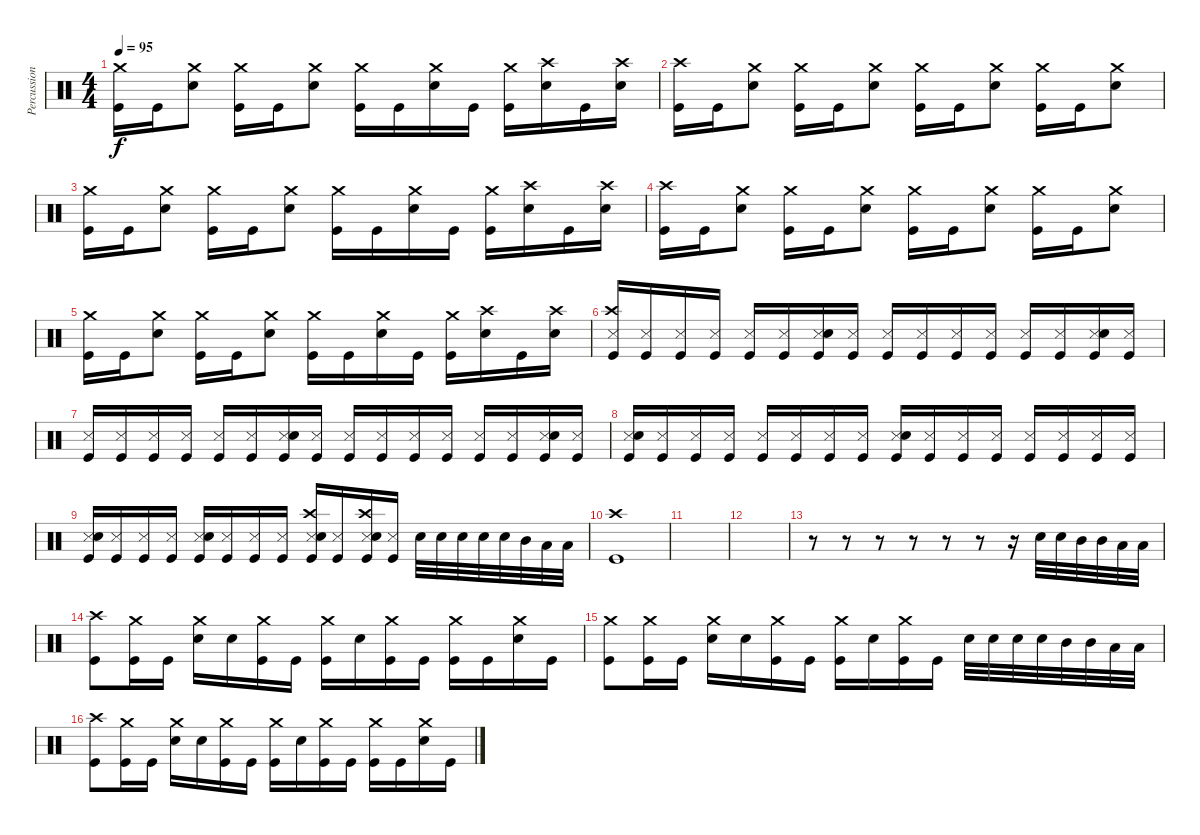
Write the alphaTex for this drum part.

\track ("Percussion" "Percussion") {instrument percussion}
\staff {score}
\articulation defaults
\ts (4 4)
\tempo 95
\clef neutral
\ks c
("Crash medium (hit)" "Kick (hit)").16{dy f} "Kick (hit)".16 ("Crash medium (hit)" "Electric Snare (hit)").8 ("Crash medium (hit)" "Kick (hit)").16 "Kick (hit)".16 ("Crash medium (hit)" "Electric Snare (hit)").8 ("Crash medium (hit)" "Kick (hit)").16 "Kick (hit)".16 ("Crash medium (hit)" "Electric Snare (hit)").16 "Kick (hit)".16 ("Crash medium (hit)" "Kick (hit)").16 ("Crash high (hit)" "Electric Snare (hit)").16 "Kick (hit)".16 ("Crash high (hit)" "Electric Snare (hit)").16 |
("Crash high (hit)" "Kick (hit)").16 "Kick (hit)".16 ("Crash medium (hit)" "Electric Snare (hit)").8 ("Crash medium (hit)" "Kick (hit)").16 "Kick (hit)".16 ("Crash medium (hit)" "Electric Snare (hit)").8 ("Crash medium (hit)" "Kick (hit)").16 "Kick (hit)".16 ("Crash medium (hit)" "Electric Snare (hit)").8 ("Crash medium (hit)" "Kick (hit)").16 "Kick (hit)".16 ("Crash medium (hit)" "Electric Snare (hit)").8 |
("Crash medium (hit)" "Kick (hit)").16 "Kick (hit)".16 ("Crash medium (hit)" "Electric Snare (hit)").8 ("Crash medium (hit)" "Kick (hit)").16 "Kick (hit)".16 ("Crash medium (hit)" "Electric Snare (hit)").8 ("Crash medium (hit)" "Kick (hit)").16 "Kick (hit)".16 ("Crash medium (hit)" "Electric Snare (hit)").16 "Kick (hit)".16 ("Crash medium (hit)" "Kick (hit)").16 ("Crash high (hit)" "Electric Snare (hit)").16 "Kick (hit)".16 ("Crash high (hit)" "Electric Snare (hit)").16 |
("Crash high (hit)" "Kick (hit)").16 "Kick (hit)".16 ("Crash medium (hit)" "Electric Snare (hit)").8 ("Crash medium (hit)" "Kick (hit)").16 "Kick (hit)".16 ("Crash medium (hit)" "Electric Snare (hit)").8 ("Crash medium (hit)" "Kick (hit)").16 "Kick (hit)".16 ("Crash medium (hit)" "Electric Snare (hit)").8 ("Crash medium (hit)" "Kick (hit)").16 "Kick (hit)".16 ("Crash medium (hit)" "Electric Snare (hit)").8 |
("Crash medium (hit)" "Kick (hit)").16 "Kick (hit)".16 ("Crash medium (hit)" "Electric Snare (hit)").8 ("Crash medium (hit)" "Kick (hit)").16 "Kick (hit)".16 ("Crash medium (hit)" "Electric Snare (hit)").8 ("Crash medium (hit)" "Kick (hit)").16 "Kick (hit)".16 ("Crash medium (hit)" "Electric Snare (hit)").16 "Kick (hit)".16 ("Crash medium (hit)" "Kick (hit)").16 ("Crash high (hit)" "Electric Snare (hit)").16 "Kick (hit)".16 ("Crash high (hit)" "Electric Snare (hit)").16 |
("Crash high (hit)" "Snare (side stick) 3" "Kick (hit)").16 ("Snare (side stick) 3" "Kick (hit)").16 ("Snare (side stick) 3" "Kick (hit)").16 ("Snare (side stick) 3" "Kick (hit)").16 ("Snare (side stick) 3" "Kick (hit)").16 ("Snare (side stick) 3" "Kick (hit)").16 ("Snare (side stick) 3" "Electric Snare (hit)" "Kick (hit)").16 ("Snare (side stick) 3" "Kick (hit)").16 ("Snare (side stick) 3" "Kick (hit)").16 ("Snare (side stick) 3" "Kick (hit)").16 ("Snare (side stick) 3" "Kick (hit)").16 ("Snare (side stick) 3" "Kick (hit)").16 ("Snare (side stick) 3" "Kick (hit)").16 ("Snare (side stick) 3" "Kick (hit)").16 ("Snare (side stick) 3" "Electric Snare (hit)" "Kick (hit)").16 ("Snare (side stick) 3" "Kick (hit)").16 |
("Snare (side stick) 3" "Kick (hit)").16 ("Snare (side stick) 3" "Kick (hit)").16 ("Snare (side stick) 3" "Kick (hit)").16 ("Snare (side stick) 3" "Kick (hit)").16 ("Snare (side stick) 3" "Kick (hit)").16 ("Snare (side stick) 3" "Kick (hit)").16 ("Snare (side stick) 3" "Electric Snare (hit)" "Kick (hit)").16 ("Snare (side stick) 3" "Kick (hit)").16 ("Snare (side stick) 3" "Kick (hit)").16 ("Snare (side stick) 3" "Kick (hit)").16 ("Snare (side stick) 3" "Kick (hit)").16 ("Snare (side stick) 3" "Kick (hit)").16 ("Snare (side stick) 3" "Kick (hit)").16 ("Snare (side stick) 3" "Kick (hit)").16 ("Snare (side stick) 3" "Electric Snare (hit)" "Kick (hit)").16 ("Snare (side stick) 3" "Kick (hit)").16 |
("Snare (side stick) 3" "Electric Snare (hit)" "Kick (hit)").16 ("Snare (side stick) 3" "Kick (hit)").16 ("Snare (side stick) 3" "Kick (hit)").16 ("Snare (side stick) 3" "Kick (hit)").16 ("Snare (side stick) 3" "Kick (hit)").16 ("Snare (side stick) 3" "Kick (hit)").16 ("Snare (side stick) 3" "Kick (hit)").16 ("Snare (side stick) 3" "Kick (hit)").16 ("Snare (side stick) 3" "Electric Snare (hit)" "Kick (hit)").16 ("Snare (side stick) 3" "Kick (hit)").16 ("Snare (side stick) 3" "Kick (hit)").16 ("Snare (side stick) 3" "Kick (hit)").16 ("Snare (side stick) 3" "Kick (hit)").16 ("Snare (side stick) 3" "Kick (hit)").16 ("Snare (side stick) 3" "Kick (hit)").16 ("Snare (side stick) 3" "Kick (hit)").16 |
("Snare (side stick) 3" "Electric Snare (hit)" "Kick (hit)").16 ("Snare (side stick) 3" "Kick (hit)").16 ("Snare (side stick) 3" "Kick (hit)").16 ("Snare (side stick) 3" "Kick (hit)").16 ("Snare (side stick) 3" "Electric Snare (hit)" "Kick (hit)").16 ("Snare (side stick) 3" "Kick (hit)").16 ("Snare (side stick) 3" "Kick (hit)").16 ("Snare (side stick) 3" "Kick (hit)").16 ("Crash high (hit)" "Snare (side stick) 3" "Electric Snare (hit)" "Kick (hit)").16 ("Snare (side stick) 3" "Kick (hit)").16 ("Crash high (hit)" "Snare (side stick) 3" "Electric Snare (hit)" "Kick (hit)").16 ("Snare (side stick) 3" "Kick (hit)").16 "Electric Snare (hit)".32 "Electric Snare (hit)".32 "Electric Snare (hit)".32 "Electric Snare (hit)".32 "Electric Snare (hit)".32 "Mid Tom (hit)".32 "Low Tom (hit)".32 "Low Tom (hit)".32 |
("Crash high (hit)" "Kick (hit)").1 |
|
|
r.8 r.8 r.8 r.8 r.8 r.8 r.16 "Electric Snare (hit)".32 "Electric Snare (hit)".32 "Mid Tom (hit)".32 "Mid Tom (hit)".32 "Low Tom (hit)".32 "Low Tom (hit)".32 |
("Crash high (hit)" "Kick (hit)").8 ("Crash medium (hit)" "Kick (hit)").16 "Kick (hit)".16 ("Crash medium (hit)" "Electric Snare (hit)").16 "Electric Snare (hit)".16 ("Crash medium (hit)" "Kick (hit)").16 "Kick (hit)".16 ("Crash medium (hit)" "Kick (hit)").16 "Electric Snare (hit)".16 ("Crash medium (hit)" "Kick (hit)").16 "Kick (hit)".16 ("Crash medium (hit)" "Kick (hit)").16 "Kick (hit)".16 ("Crash medium (hit)" "Electric Snare (hit)").16 "Kick (hit)".16 |
("Crash medium (hit)" "Kick (hit)").8 ("Crash medium (hit)" "Kick (hit)").16 "Kick (hit)".16 ("Crash medium (hit)" "Electric Snare (hit)").16 "Electric Snare (hit)".16 ("Crash medium (hit)" "Kick (hit)").16 "Kick (hit)".16 ("Crash medium (hit)" "Kick (hit)").16 "Electric Snare (hit)".16 ("Crash medium (hit)" "Kick (hit)").16 "Kick (hit)".16 "Electric Snare (hit)".32 "Electric Snare (hit)".32 "Electric Snare (hit)".32 "Electric Snare (hit)".32 "Mid Tom (hit)".32 "Mid Tom (hit)".32 "Low Tom (hit)".32 "Low Tom (hit)".32 |
("Crash high (hit)" "Kick (hit)").8 ("Crash medium (hit)" "Kick (hit)").16 "Kick (hit)".16 ("Crash medium (hit)" "Electric Snare (hit)").16 "Electric Snare (hit)".16 ("Crash medium (hit)" "Kick (hit)").16 "Kick (hit)".16 ("Crash medium (hit)" "Kick (hit)").16 "Electric Snare (hit)".16 ("Crash medium (hit)" "Kick (hit)").16 "Kick (hit)".16 ("Crash medium (hit)" "Kick (hit)").16 "Kick (hit)".16 ("Crash medium (hit)" "Electric Snare (hit)").16 "Kick (hit)".16
